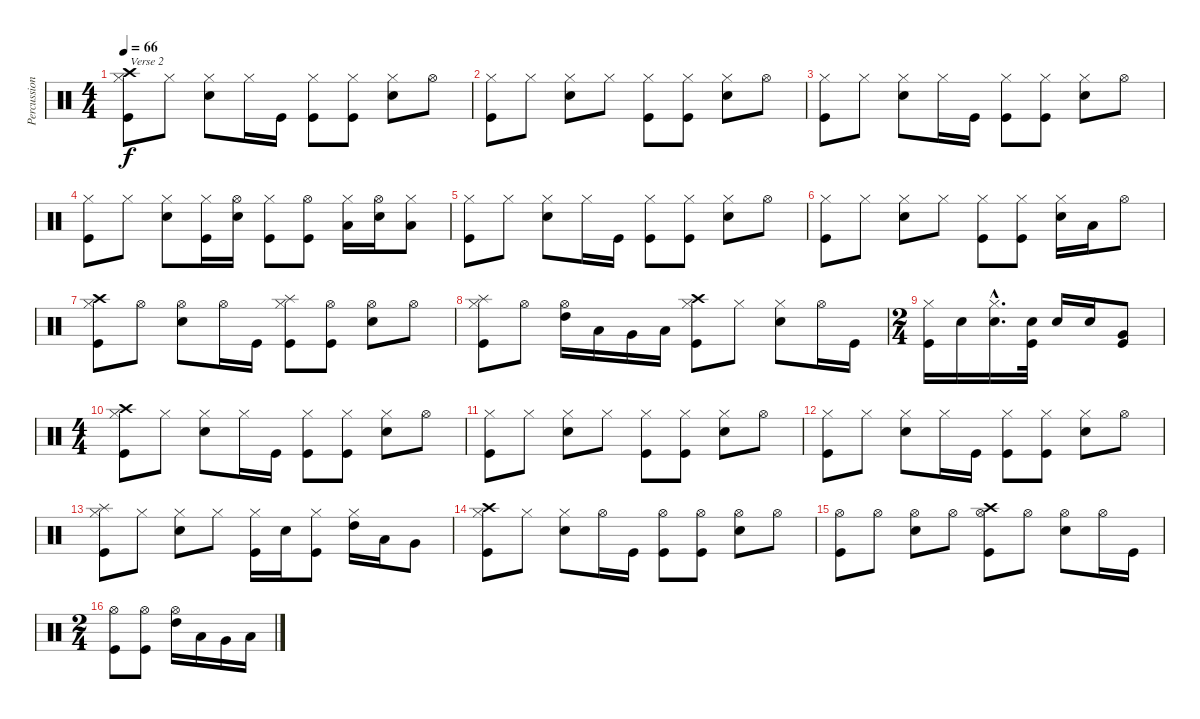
\track ("Percussion" "Percussion") {instrument percussion}
\staff {score}
\articulation defaults
\ts (4 4)
\tempo 66
\clef neutral
\ks c
("Hi-Hat (closed)" "Kick (hit)" "Crash high (hit)").8{txt "Verse 2" dy f} "Hi-Hat (closed)".8 ("Hi-Hat (closed)" "Electric Snare (hit)").8 "Hi-Hat (closed)".16 "Kick (hit)".16 ("Hi-Hat (closed)" "Kick (hit)").8 ("Hi-Hat (closed)" "Kick (hit)").8 ("Hi-Hat (closed)" "Electric Snare (hit)").8 "Hi-Hat (open)".8 |
("Hi-Hat (closed)" "Kick (hit)").8 "Hi-Hat (closed)".8 ("Hi-Hat (closed)" "Electric Snare (hit)").8 "Hi-Hat (closed)".8 ("Hi-Hat (closed)" "Kick (hit)").8 ("Hi-Hat (closed)" "Kick (hit)").8 ("Hi-Hat (closed)" "Electric Snare (hit)").8 "Hi-Hat (open)".8 |
("Hi-Hat (closed)" "Kick (hit)").8 "Hi-Hat (closed)".8 ("Hi-Hat (closed)" "Electric Snare (hit)").8 "Hi-Hat (closed)".16 "Kick (hit)".16 ("Hi-Hat (closed)" "Kick (hit)").8 ("Hi-Hat (closed)" "Kick (hit)").8 ("Hi-Hat (closed)" "Electric Snare (hit)").8 "Hi-Hat (open)".8 |
("Hi-Hat (closed)" "Kick (hit)").8 "Hi-Hat (closed)".8 ("Hi-Hat (closed)" "Electric Snare (hit)").8 ("Hi-Hat (closed)" "Kick (hit)").16 ("Hi-Hat (open)" "Electric Snare (hit)").16 ("Hi-Hat (closed)" "Kick (hit)").8 ("Hi-Hat (open)" "Kick (hit)").8 ("Hi-Hat (closed)" "Low Floor Tom (hit)").16 ("Hi-Hat (open)" "Electric Snare (hit)").16 ("Hi-Hat (closed)" "Low Floor Tom (hit)").8 |
("Hi-Hat (closed)" "Kick (hit)").8 "Hi-Hat (closed)".8 ("Hi-Hat (closed)" "Electric Snare (hit)").8 "Hi-Hat (closed)".16 "Kick (hit)".16 ("Hi-Hat (closed)" "Kick (hit)").8 ("Hi-Hat (closed)" "Kick (hit)").8 ("Hi-Hat (closed)" "Electric Snare (hit)").8 "Hi-Hat (open)".8 |
("Hi-Hat (closed)" "Kick (hit)").8 "Hi-Hat (closed)".8 ("Hi-Hat (closed)" "Electric Snare (hit)").8 "Hi-Hat (closed)".8 ("Hi-Hat (closed)" "Kick (hit)").8 ("Hi-Hat (closed)" "Kick (hit)").8 ("Hi-Hat (closed)" "Electric Snare (hit)").16 "Low Tom (hit)".16 "Hi-Hat (open)".8 |
("Hi-Hat (closed)" "Kick (hit)" "Crash high (hit)").8 "Hi-Hat (open)".8 ("Hi-Hat (open)" "Electric Snare (hit)").8 "Hi-Hat (open)".16 "Kick (hit)".16 ("Hi-Hat (closed)" "Kick (hit)" "Splash (hit)").8 ("Hi-Hat (open)" "Kick (hit)").8 ("Hi-Hat (open)" "Electric Snare (hit)").8 "Hi-Hat (open)".8 |
("Hi-Hat (closed)" "Kick (hit)" "Splash (hit)").8 "Hi-Hat (open)".8 ("Hi-Hat (open)" "High Tom (hit)").16 "Low Tom (hit)".16 "Very Low Tom (hit)".16 "Low Floor Tom (hit)".16 ("Hi-Hat (closed)" "Kick (hit)" "Crash high (hit)").8 "Hi-Hat (closed)".8 ("Hi-Hat (closed)" "Electric Snare (hit)").8 "Hi-Hat (open)".16 "Kick (hit)".16 |
\ts (2 4)
("Hi-Hat (closed)" "Kick (hit)").16 "Snare (hit) 2".16 ("Hi-Hat (closed)"{hac} "Snare (hit) 2"{hac}).16{d} ("Snare (hit) 2" "Kick (hit)").32 "Snare (hit) 2".16 "Snare (hit) 2".16 ("Kick (hit)" "Very Low Tom (hit)").8 |
\ts (4 4)
("Hi-Hat (closed)" "Kick (hit)" "Crash high (hit)").8 "Hi-Hat (closed)".8 ("Hi-Hat (closed)" "Electric Snare (hit)").8 "Hi-Hat (closed)".16 "Kick (hit)".16 ("Hi-Hat (closed)" "Kick (hit)").8 ("Hi-Hat (closed)" "Kick (hit)").8 ("Hi-Hat (closed)" "Electric Snare (hit)").8 "Hi-Hat (open)".8 |
("Hi-Hat (closed)" "Kick (hit)").8 "Hi-Hat (closed)".8 ("Hi-Hat (closed)" "Electric Snare (hit)").8 "Hi-Hat (closed)".8 ("Hi-Hat (closed)" "Kick (hit)").8 ("Hi-Hat (closed)" "Kick (hit)").8 ("Hi-Hat (closed)" "Electric Snare (hit)").8 "Hi-Hat (open)".8 |
("Hi-Hat (closed)" "Kick (hit)").8 "Hi-Hat (closed)".8 ("Hi-Hat (closed)" "Electric Snare (hit)").8 "Hi-Hat (closed)".16 "Kick (hit)".16 ("Hi-Hat (closed)" "Kick (hit)").8 ("Hi-Hat (closed)" "Kick (hit)").8 ("Hi-Hat (closed)" "Electric Snare (hit)").8 "Hi-Hat (open)".8 |
("Hi-Hat (closed)" "Kick (hit)" "Splash (hit)").8 "Hi-Hat (closed)".8 ("Hi-Hat (closed)" "Electric Snare (hit)").8 "Hi-Hat (closed)".8 ("Hi-Hat (closed)" "Kick (hit)").16 "Electric Snare (hit)".16 ("Hi-Hat (closed)" "Kick (hit)").8 ("Hi-Hat (closed)" "High Tom (hit)").16 "Low Tom (hit)".16 "Very Low Tom (hit)".8 |
("Hi-Hat (closed)" "Kick (hit)" "Crash high (hit)").8 "Hi-Hat (closed)".8 ("Hi-Hat (closed)" "Electric Snare (hit)").8 "Hi-Hat (open)".16 "Kick (hit)".16 ("Hi-Hat (open)" "Kick (hit)").8 ("Hi-Hat (open)" "Kick (hit)").8 ("Hi-Hat (open)" "Electric Snare (hit)").8 "Hi-Hat (open)".8 |
("Hi-Hat (open)" "Kick (hit)").8 "Hi-Hat (open)".8 ("Hi-Hat (open)" "Electric Snare (hit)").8 "Hi-Hat (open)".8 ("Hi-Hat (open)" "Kick (hit)" "Crash high (hit)").8 "Hi-Hat (open)".8 ("Hi-Hat (open)" "Electric Snare (hit)").8 "Hi-Hat (open)".16 "Kick (hit)".16 |
\ts (2 4)
("Hi-Hat (open)" "Kick (hit)").8 ("Hi-Hat (open)" "Kick (hit)").8 ("Hi-Hat (open)" "High Tom (hit)").16 "Low Tom (hit)".16 "Very Low Tom (hit)".16 "Low Floor Tom (hit)".16
